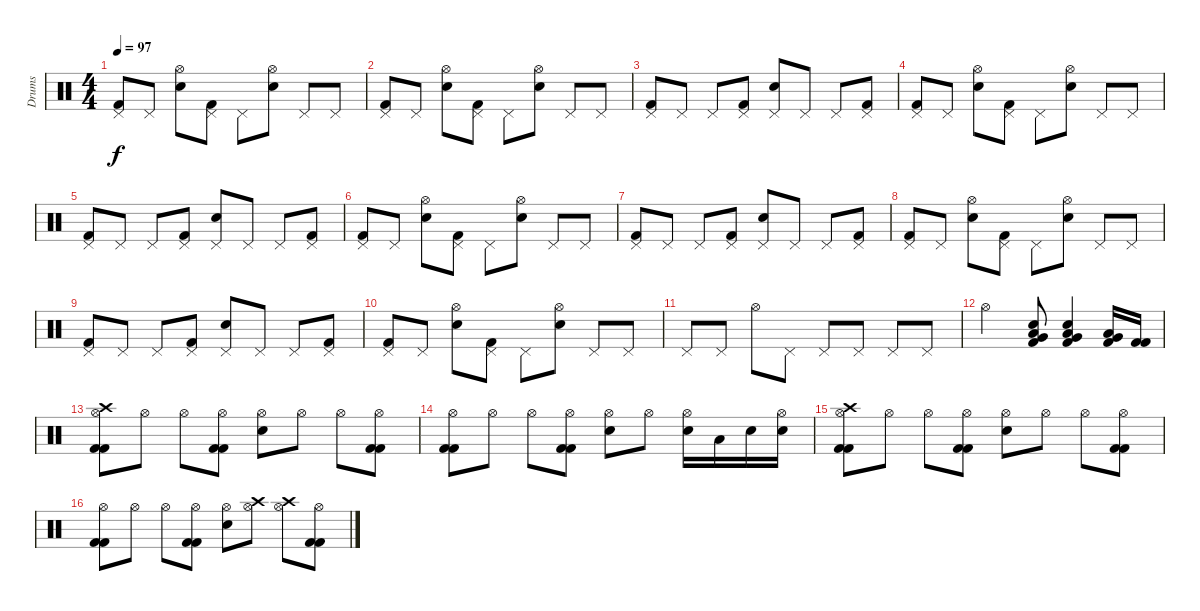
\track ("Drums" "Drums") {instrument percussion}
\staff {score}
\articulation defaults
\ts (4 4)
\tempo 97
\clef neutral
\ks c
("Pedal Hi-Hat (hit)" "Kick (hit) 2").8{dy f} "Pedal Hi-Hat (hit)".8 ("Hi-Hat (open)" "Electric Snare (hit)").8 ("Pedal Hi-Hat (hit)" "Kick (hit) 2").8 "Pedal Hi-Hat (hit)".8 ("Hi-Hat (open)" "Electric Snare (hit)").8 "Pedal Hi-Hat (hit)".8 "Pedal Hi-Hat (hit)".8 |
("Pedal Hi-Hat (hit)" "Kick (hit) 2").8 "Pedal Hi-Hat (hit)".8 ("Hi-Hat (open)" "Electric Snare (hit)").8 ("Pedal Hi-Hat (hit)" "Kick (hit) 2").8 "Pedal Hi-Hat (hit)".8 ("Hi-Hat (open)" "Electric Snare (hit)").8 "Pedal Hi-Hat (hit)".8 "Pedal Hi-Hat (hit)".8 |
("Pedal Hi-Hat (hit)" "Kick (hit) 2").8 "Pedal Hi-Hat (hit)".8 "Pedal Hi-Hat (hit)".8 ("Pedal Hi-Hat (hit)" "Kick (hit) 2").8 ("Pedal Hi-Hat (hit)" "Electric Snare (hit)").8 "Pedal Hi-Hat (hit)".8 "Pedal Hi-Hat (hit)".8 ("Pedal Hi-Hat (hit)" "Kick (hit) 2").8 |
("Pedal Hi-Hat (hit)" "Kick (hit) 2").8 "Pedal Hi-Hat (hit)".8 ("Hi-Hat (open)" "Electric Snare (hit)").8 ("Pedal Hi-Hat (hit)" "Kick (hit) 2").8 "Pedal Hi-Hat (hit)".8 ("Hi-Hat (open)" "Electric Snare (hit)").8 "Pedal Hi-Hat (hit)".8 "Pedal Hi-Hat (hit)".8 |
("Pedal Hi-Hat (hit)" "Kick (hit) 2").8 "Pedal Hi-Hat (hit)".8 "Pedal Hi-Hat (hit)".8 ("Pedal Hi-Hat (hit)" "Kick (hit) 2").8 ("Pedal Hi-Hat (hit)" "Electric Snare (hit)").8 "Pedal Hi-Hat (hit)".8 "Pedal Hi-Hat (hit)".8 ("Pedal Hi-Hat (hit)" "Kick (hit) 2").8 |
("Pedal Hi-Hat (hit)" "Kick (hit) 2").8 "Pedal Hi-Hat (hit)".8 ("Hi-Hat (open)" "Electric Snare (hit)").8 ("Pedal Hi-Hat (hit)" "Kick (hit) 2").8 "Pedal Hi-Hat (hit)".8 ("Hi-Hat (open)" "Electric Snare (hit)").8 "Pedal Hi-Hat (hit)".8 "Pedal Hi-Hat (hit)".8 |
("Pedal Hi-Hat (hit)" "Kick (hit) 2").8 "Pedal Hi-Hat (hit)".8 "Pedal Hi-Hat (hit)".8 ("Pedal Hi-Hat (hit)" "Kick (hit) 2").8 ("Pedal Hi-Hat (hit)" "Electric Snare (hit)").8 "Pedal Hi-Hat (hit)".8 "Pedal Hi-Hat (hit)".8 ("Pedal Hi-Hat (hit)" "Kick (hit) 2").8 |
("Pedal Hi-Hat (hit)" "Kick (hit) 2").8 "Pedal Hi-Hat (hit)".8 ("Hi-Hat (open)" "Electric Snare (hit)").8 ("Pedal Hi-Hat (hit)" "Kick (hit) 2").8 "Pedal Hi-Hat (hit)".8 ("Hi-Hat (open)" "Electric Snare (hit)").8 "Pedal Hi-Hat (hit)".8 "Pedal Hi-Hat (hit)".8 |
("Pedal Hi-Hat (hit)" "Kick (hit) 2").8 "Pedal Hi-Hat (hit)".8 "Pedal Hi-Hat (hit)".8 ("Pedal Hi-Hat (hit)" "Kick (hit) 2").8 ("Pedal Hi-Hat (hit)" "Electric Snare (hit)").8 "Pedal Hi-Hat (hit)".8 "Pedal Hi-Hat (hit)".8 ("Pedal Hi-Hat (hit)" "Kick (hit) 2").8 |
("Pedal Hi-Hat (hit)" "Kick (hit) 2").8 "Pedal Hi-Hat (hit)".8 ("Hi-Hat (open)" "Electric Snare (hit)").8 ("Pedal Hi-Hat (hit)" "Kick (hit) 2").8 "Pedal Hi-Hat (hit)".8 ("Hi-Hat (open)" "Electric Snare (hit)").8 "Pedal Hi-Hat (hit)".8 "Pedal Hi-Hat (hit)".8 |
"Pedal Hi-Hat (hit)".8 "Pedal Hi-Hat (hit)".8 "Hi-Hat (open)".8 "Pedal Hi-Hat (hit)".8 "Pedal Hi-Hat (hit)".8 "Pedal Hi-Hat (hit)".8 "Pedal Hi-Hat (hit)".8 "Pedal Hi-Hat (hit)".8 |
"Hi-Hat (open)".2 ("Low Floor Tom (hit)" "Very Low Tom (hit)" "Snare (hit) 2" "Kick (hit) 2").8 ("Low Floor Tom (hit)" "Very Low Tom (hit)" "Electric Snare (hit)" "Kick (hit) 2").4 ("Low Floor Tom (hit)" "Very Low Tom (hit)" "Kick (hit) 2").16 ("Kick (hit) 2" "Kick (hit) 2").16 |
("Hi-Hat (open)" "Crash high (hit)" "Kick (hit) 2" "Kick (hit) 2").8 "Hi-Hat (open)".8 "Hi-Hat (open)".8 ("Hi-Hat (open)" "Kick (hit) 2" "Kick (hit) 2").8 ("Hi-Hat (open)" "Electric Snare (hit)").8 "Hi-Hat (open)".8 "Hi-Hat (open)".8 ("Hi-Hat (open)" "Kick (hit) 2" "Kick (hit) 2").8 |
("Hi-Hat (open)" "Kick (hit) 2" "Kick (hit) 2").8 "Hi-Hat (open)".8 "Hi-Hat (open)".8 ("Hi-Hat (open)" "Kick (hit) 2" "Kick (hit) 2").8 ("Hi-Hat (open)" "Electric Snare (hit)").8 "Hi-Hat (open)".8 ("Hi-Hat (open)" "Electric Snare (hit)").16 "Low Tom (hit)".16 "Electric Snare (hit)".16 ("Hi-Hat (open)" "Electric Snare (hit)").16 |
("Hi-Hat (open)" "Crash high (hit)" "Kick (hit) 2" "Kick (hit) 2").8 "Hi-Hat (open)".8 "Hi-Hat (open)".8 ("Hi-Hat (open)" "Kick (hit) 2" "Kick (hit) 2").8 ("Hi-Hat (open)" "Electric Snare (hit)").8 "Hi-Hat (open)".8 "Hi-Hat (open)".8 ("Hi-Hat (open)" "Kick (hit) 2" "Kick (hit) 2").8 |
("Hi-Hat (open)" "Kick (hit) 2" "Kick (hit) 2").8 "Hi-Hat (open)".8 "Hi-Hat (open)".8 ("Hi-Hat (open)" "Kick (hit) 2" "Kick (hit) 2").8 ("Hi-Hat (open)" "Electric Snare (hit)").8 ("Hi-Hat (open)" "Crash high (hit)").8 ("Hi-Hat (open)" "Crash high (hit)").8 ("Hi-Hat (open)" "Kick (hit) 2" "Kick (hit) 2").8
